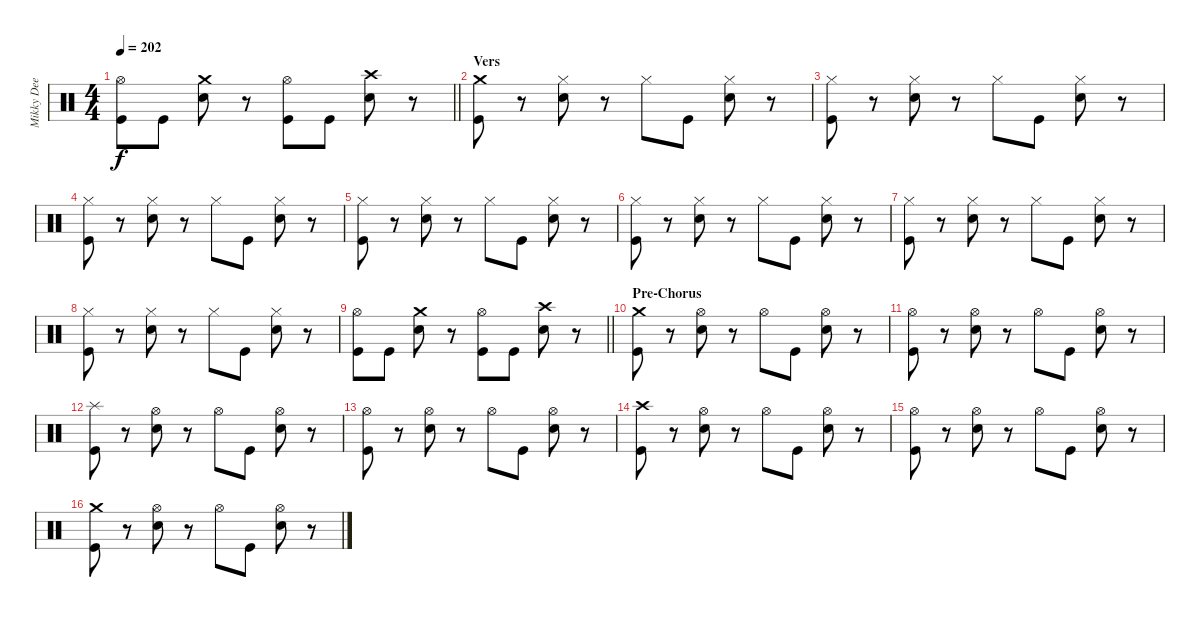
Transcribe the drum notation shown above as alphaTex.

\track ("Mikky Dee" "Mikky Dee") {instrument percussion}
\staff {score}
\articulation defaults
\ts (4 4)
\tempo 202
\clef neutral
\barLineRight lightlight
\ks c
("Hi-Hat (open)" "Kick (hit)").8{dy f} "Kick (hit)".8 ("Crash medium (hit)" "Electric Snare (hit)").8 r.8 ("Hi-Hat (open)" "Kick (hit)").8 "Kick (hit)".8 ("Crash high (hit)" "Electric Snare (hit)").8 r.8 |
\section ("" "Vers")
("Crash medium (hit)" "Kick (hit)").8 r.8 ("Hi-Hat (closed)" "Electric Snare (hit)").8 r.8 "Hi-Hat (closed)".8 "Kick (hit)".8 ("Hi-Hat (closed)" "Electric Snare (hit)").8 r.8 |
("Hi-Hat (closed)" "Kick (hit)").8 r.8 ("Hi-Hat (closed)" "Electric Snare (hit)").8 r.8 "Hi-Hat (closed)".8 "Kick (hit)".8 ("Hi-Hat (closed)" "Electric Snare (hit)").8 r.8 |
("Hi-Hat (closed)" "Kick (hit)").8 r.8 ("Hi-Hat (closed)" "Electric Snare (hit)").8 r.8 "Hi-Hat (closed)".8 "Kick (hit)".8 ("Hi-Hat (closed)" "Electric Snare (hit)").8 r.8 |
("Hi-Hat (closed)" "Kick (hit)").8 r.8 ("Hi-Hat (closed)" "Electric Snare (hit)").8 r.8 "Hi-Hat (closed)".8 "Kick (hit)".8 ("Hi-Hat (closed)" "Electric Snare (hit)").8 r.8 |
("Hi-Hat (closed)" "Kick (hit)").8 r.8 ("Hi-Hat (closed)" "Electric Snare (hit)").8 r.8 "Hi-Hat (closed)".8 "Kick (hit)".8 ("Hi-Hat (closed)" "Electric Snare (hit)").8 r.8 |
("Hi-Hat (closed)" "Kick (hit)").8 r.8 ("Hi-Hat (closed)" "Electric Snare (hit)").8 r.8 "Hi-Hat (closed)".8 "Kick (hit)".8 ("Hi-Hat (closed)" "Electric Snare (hit)").8 r.8 |
("Hi-Hat (closed)" "Kick (hit)").8 r.8 ("Hi-Hat (closed)" "Electric Snare (hit)").8 r.8 "Hi-Hat (closed)".8 "Kick (hit)".8 ("Hi-Hat (closed)" "Electric Snare (hit)").8 r.8 |
\barLineRight lightlight
("Hi-Hat (open)" "Kick (hit)").8 "Kick (hit)".8 ("Crash medium (hit)" "Electric Snare (hit)").8 r.8 ("Hi-Hat (open)" "Kick (hit)").8 "Kick (hit)".8 ("Crash high (hit)" "Electric Snare (hit)").8 r.8 |
\section ("" "Pre-Chorus")
("Crash medium (hit)" "Kick (hit)").8 r.8 ("Hi-Hat (open)" "Electric Snare (hit)").8 r.8 "Hi-Hat (open)".8 "Kick (hit)".8 ("Hi-Hat (open)" "Electric Snare (hit)").8 r.8 |
("Hi-Hat (open)" "Kick (hit)").8 r.8 ("Hi-Hat (open)" "Electric Snare (hit)").8 r.8 "Hi-Hat (open)".8 "Kick (hit)".8 ("Hi-Hat (open)" "Electric Snare (hit)").8 r.8 |
("Splash (hit)" "Kick (hit)").8 r.8 ("Hi-Hat (open)" "Electric Snare (hit)").8 r.8 "Hi-Hat (open)".8 "Kick (hit)".8 ("Hi-Hat (open)" "Electric Snare (hit)").8 r.8 |
("Hi-Hat (open)" "Kick (hit)").8 r.8 ("Hi-Hat (open)" "Electric Snare (hit)").8 r.8 "Hi-Hat (open)".8 "Kick (hit)".8 ("Hi-Hat (open)" "Electric Snare (hit)").8 r.8 |
("Crash high (hit)" "Kick (hit)").8 r.8 ("Hi-Hat (open)" "Electric Snare (hit)").8 r.8 "Hi-Hat (open)".8 "Kick (hit)".8 ("Hi-Hat (open)" "Electric Snare (hit)").8 r.8 |
("Hi-Hat (open)" "Kick (hit)").8 r.8 ("Hi-Hat (open)" "Electric Snare (hit)").8 r.8 "Hi-Hat (open)".8 "Kick (hit)".8 ("Hi-Hat (open)" "Electric Snare (hit)").8 r.8 |
("Crash medium (hit)" "Kick (hit)").8 r.8 ("Hi-Hat (open)" "Electric Snare (hit)").8 r.8 "Hi-Hat (open)".8 "Kick (hit)".8 ("Hi-Hat (open)" "Electric Snare (hit)").8 r.8
